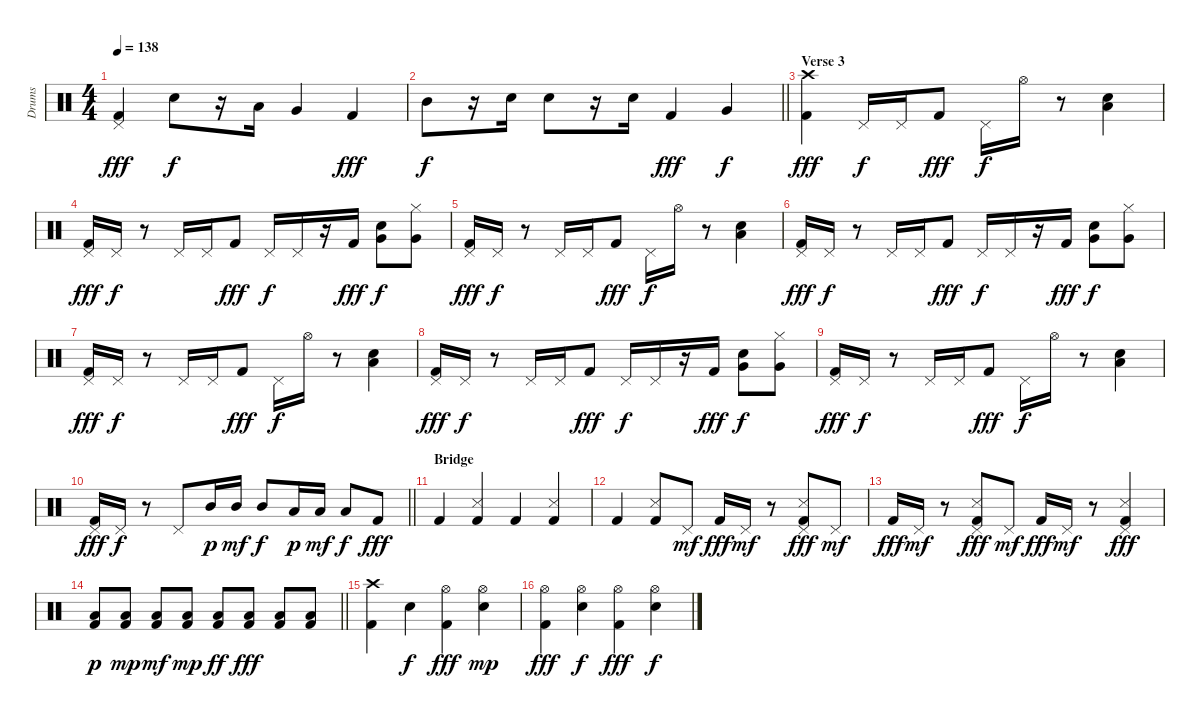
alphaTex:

\track ("Drums" "Drums") {instrument percussion}
\staff {score}
\articulation defaults
\ts (4 4)
\tempo 138
\clef neutral
\ks c
("Pedal Hi-Hat (hit)" "Kick (hit) 2").4{dy fff} "Electric Snare (hit)".8{dy f} r.16 "Low Tom (hit)".16 "Very Low Tom (hit)".4 "Kick (hit) 2".4{dy fff} |
\barLineRight lightlight "Mid Tom (hit)".8{dy f}
r.16 "Electric Snare (hit)".16 "Electric Snare (hit)".8 r.16 "Electric Snare (hit)".16 "Kick (hit) 2".4{dy fff} "Very Low Tom (hit)".4{dy f} |
\section ("" "Verse 3")
("Crash high (hit)" "Kick (hit) 2").4{dy fff} "Pedal Hi-Hat (hit)".16{dy f} "Pedal Hi-Hat (hit)".16 "Kick (hit) 2".8{dy fff} "Pedal Hi-Hat (hit)".16{dy f} "Hi-Hat (open)".16 r.8 ("Electric Snare (hit)" "Low Tom (hit)").4 |
("Pedal Hi-Hat (hit)" "Kick (hit) 2").16{dy fff} "Pedal Hi-Hat (hit)".16{dy f} r.8 "Pedal Hi-Hat (hit)".16 "Pedal Hi-Hat (hit)".16 "Kick (hit) 2".8{dy fff} "Pedal Hi-Hat (hit)".16{dy f} "Pedal Hi-Hat (hit)".16 r.16 "Kick (hit) 2".16{dy fff} ("Electric Snare (hit)" "Very Low Tom (hit)").8{dy f} ("Hi-Hat (closed)" "Very Low Tom (hit)").8 |
("Pedal Hi-Hat (hit)" "Kick (hit) 2").16{dy fff} "Pedal Hi-Hat (hit)".16{dy f} r.8 "Pedal Hi-Hat (hit)".16 "Pedal Hi-Hat (hit)".16 "Kick (hit) 2".8{dy fff} "Pedal Hi-Hat (hit)".16{dy f} "Hi-Hat (open)".16 r.8 ("Electric Snare (hit)" "Low Tom (hit)").4 |
("Pedal Hi-Hat (hit)" "Kick (hit) 2").16{dy fff} "Pedal Hi-Hat (hit)".16{dy f} r.8 "Pedal Hi-Hat (hit)".16 "Pedal Hi-Hat (hit)".16 "Kick (hit) 2".8{dy fff} "Pedal Hi-Hat (hit)".16{dy f} "Pedal Hi-Hat (hit)".16 r.16 "Kick (hit) 2".16{dy fff} ("Electric Snare (hit)" "Very Low Tom (hit)").8{dy f} ("Hi-Hat (closed)" "Very Low Tom (hit)").8 |
("Pedal Hi-Hat (hit)" "Kick (hit) 2").16{dy fff} "Pedal Hi-Hat (hit)".16{dy f} r.8 "Pedal Hi-Hat (hit)".16 "Pedal Hi-Hat (hit)".16 "Kick (hit) 2".8{dy fff} "Pedal Hi-Hat (hit)".16{dy f} "Hi-Hat (open)".16 r.8 ("Electric Snare (hit)" "Low Tom (hit)").4 |
("Pedal Hi-Hat (hit)" "Kick (hit) 2").16{dy fff} "Pedal Hi-Hat (hit)".16{dy f} r.8 "Pedal Hi-Hat (hit)".16 "Pedal Hi-Hat (hit)".16 "Kick (hit) 2".8{dy fff} "Pedal Hi-Hat (hit)".16{dy f} "Pedal Hi-Hat (hit)".16 r.16 "Kick (hit) 2".16{dy fff} ("Electric Snare (hit)" "Very Low Tom (hit)").8{dy f} ("Hi-Hat (closed)" "Very Low Tom (hit)").8 |
("Pedal Hi-Hat (hit)" "Kick (hit) 2").16{dy fff} "Pedal Hi-Hat (hit)".16{dy f} r.8 "Pedal Hi-Hat (hit)".16 "Pedal Hi-Hat (hit)".16 "Kick (hit) 2".8{dy fff} "Pedal Hi-Hat (hit)".16{dy f} "Hi-Hat (open)".16 r.8 ("Electric Snare (hit)" "Low Tom (hit)").4 |
\barLineRight lightlight
("Pedal Hi-Hat (hit)" "Kick (hit) 2").16{dy fff} "Pedal Hi-Hat (hit)".16{dy f} r.8 "Pedal Hi-Hat (hit)".8 "Mid Tom (hit)".16{dy p} "Mid Tom (hit)".16{dy mf} "Mid Tom (hit)".8{dy f} "Low Tom (hit)".16{dy p} "Low Tom (hit)".16{dy mf} "Low Tom (hit)".8{dy f} "Kick (hit) 2".8{dy fff} |
\section ("" "Bridge")
"Kick (hit) 2".4 ("Metronome (hit)" "Kick (hit) 2").4 "Kick (hit) 2".4 ("Metronome (hit)" "Kick (hit) 2").4 |
"Kick (hit) 2".4 ("Metronome (hit)" "Kick (hit) 2").8 "Pedal Hi-Hat (hit)".8{dy mf} "Kick (hit) 2".16{dy fff} "Pedal Hi-Hat (hit)".16{dy mf} r.8 ("Pedal Hi-Hat (hit)" "Metronome (hit)" "Kick (hit) 2").8{dy fff} "Pedal Hi-Hat (hit)".8{dy mf} |
"Kick (hit) 2".16{dy fff} "Pedal Hi-Hat (hit)".16{dy mf} r.8 ("Pedal Hi-Hat (hit)" "Metronome (hit)" "Kick (hit) 2").8{dy fff} "Pedal Hi-Hat (hit)".8{dy mf} "Kick (hit) 2".16{dy fff} "Pedal Hi-Hat (hit)".16{dy mf} r.8 ("Pedal Hi-Hat (hit)" "Metronome (hit)" "Kick (hit) 2").4{dy fff} |
\barLineRight lightlight
("Low Tom (hit)" "Kick (hit) 2").8{dy p} ("Low Tom (hit)" "Kick (hit) 2").8{dy mp} ("Low Tom (hit)" "Kick (hit) 2").8{dy mf} ("Low Tom (hit)" "Kick (hit) 2").8{dy mp} ("Low Tom (hit)" "Kick (hit) 2").8{dy ff} ("Low Tom (hit)" "Kick (hit) 2").8{dy fff} ("Low Tom (hit)" "Kick (hit) 2").8 ("Low Tom (hit)" "Kick (hit) 2").8 |
("Crash high (hit)" "Kick (hit) 2").4 "Electric Snare (hit)".4{dy f} ("Hi-Hat (open)" "Kick (hit) 2").4{dy fff} ("Hi-Hat (open)" "Electric Snare (hit)").4{dy mp} |
("Hi-Hat (open)" "Kick (hit) 2").4{dy fff} ("Hi-Hat (open)" "Electric Snare (hit)").4{dy f} ("Hi-Hat (open)" "Kick (hit) 2").4{dy fff} ("Hi-Hat (open)" "Electric Snare (hit)").4{dy f}
